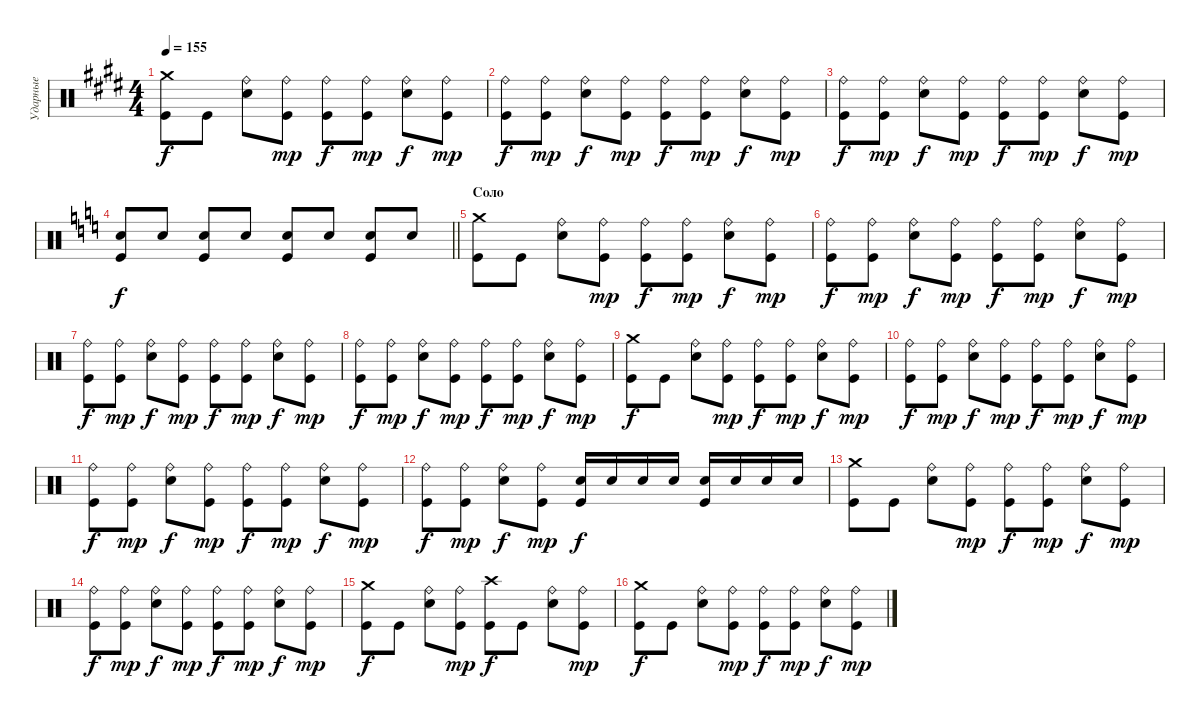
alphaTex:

\track ("Ударные" "Ударные") {instrument percussion}
\staff {score}
\articulation defaults
\ts (4 4)
\tempo 155
\clef neutral
\ks e
("Crash medium (hit)" "Kick (hit)").8{dy f} "Kick (hit)".8 ("Ride (bell)" "Electric Snare (hit)").8 ("Ride (bell)" "Kick (hit)").8{dy mp} ("Ride (bell)" "Kick (hit)").8{dy f} ("Ride (bell)" "Kick (hit)").8{dy mp} ("Ride (bell)" "Electric Snare (hit)").8{dy f} ("Ride (bell)" "Kick (hit)").8{dy mp} |
("Ride (bell)" "Kick (hit)").8{dy f} ("Ride (bell)" "Kick (hit)").8{dy mp} ("Ride (bell)" "Electric Snare (hit)").8{dy f} ("Ride (bell)" "Kick (hit)").8{dy mp} ("Ride (bell)" "Kick (hit)").8{dy f} ("Ride (bell)" "Kick (hit)").8{dy mp} ("Ride (bell)" "Electric Snare (hit)").8{dy f} ("Ride (bell)" "Kick (hit)").8{dy mp} |
("Ride (bell)" "Kick (hit)").8{dy f} ("Ride (bell)" "Kick (hit)").8{dy mp} ("Ride (bell)" "Electric Snare (hit)").8{dy f} ("Ride (bell)" "Kick (hit)").8{dy mp} ("Ride (bell)" "Kick (hit)").8{dy f} ("Ride (bell)" "Kick (hit)").8{dy mp} ("Ride (bell)" "Electric Snare (hit)").8{dy f} ("Ride (bell)" "Kick (hit)").8{dy mp} |
\barLineRight lightlight
\ks c
("Electric Snare (hit)" "Kick (hit)").8{dy f} "Electric Snare (hit)".8 ("Electric Snare (hit)" "Kick (hit)").8 "Electric Snare (hit)".8 ("Electric Snare (hit)" "Kick (hit)").8 "Electric Snare (hit)".8 ("Electric Snare (hit)" "Kick (hit)").8 "Electric Snare (hit)".8 |
\section ("" "Соло")
("Crash medium (hit)" "Kick (hit)").8 "Kick (hit)".8 ("Ride (bell)" "Electric Snare (hit)").8 ("Ride (bell)" "Kick (hit)").8{dy mp} ("Ride (bell)" "Kick (hit)").8{dy f} ("Ride (bell)" "Kick (hit)").8{dy mp} ("Ride (bell)" "Electric Snare (hit)").8{dy f} ("Ride (bell)" "Kick (hit)").8{dy mp} |
("Ride (bell)" "Kick (hit)").8{dy f} ("Ride (bell)" "Kick (hit)").8{dy mp} ("Ride (bell)" "Electric Snare (hit)").8{dy f} ("Ride (bell)" "Kick (hit)").8{dy mp} ("Ride (bell)" "Kick (hit)").8{dy f} ("Ride (bell)" "Kick (hit)").8{dy mp} ("Ride (bell)" "Electric Snare (hit)").8{dy f} ("Ride (bell)" "Kick (hit)").8{dy mp} |
("Ride (bell)" "Kick (hit)").8{dy f} ("Ride (bell)" "Kick (hit)").8{dy mp} ("Ride (bell)" "Electric Snare (hit)").8{dy f} ("Ride (bell)" "Kick (hit)").8{dy mp} ("Ride (bell)" "Kick (hit)").8{dy f} ("Ride (bell)" "Kick (hit)").8{dy mp} ("Ride (bell)" "Electric Snare (hit)").8{dy f} ("Ride (bell)" "Kick (hit)").8{dy mp} |
("Ride (bell)" "Kick (hit)").8{dy f} ("Ride (bell)" "Kick (hit)").8{dy mp} ("Ride (bell)" "Electric Snare (hit)").8{dy f} ("Ride (bell)" "Kick (hit)").8{dy mp} ("Ride (bell)" "Kick (hit)").8{dy f} ("Ride (bell)" "Kick (hit)").8{dy mp} ("Ride (bell)" "Electric Snare (hit)").8{dy f} ("Ride (bell)" "Kick (hit)").8{dy mp} |
("Crash medium (hit)" "Kick (hit)").8{dy f} "Kick (hit)".8 ("Ride (bell)" "Electric Snare (hit)").8 ("Ride (bell)" "Kick (hit)").8{dy mp} ("Ride (bell)" "Kick (hit)").8{dy f} ("Ride (bell)" "Kick (hit)").8{dy mp} ("Ride (bell)" "Electric Snare (hit)").8{dy f} ("Ride (bell)" "Kick (hit)").8{dy mp} |
("Ride (bell)" "Kick (hit)").8{dy f} ("Ride (bell)" "Kick (hit)").8{dy mp} ("Ride (bell)" "Electric Snare (hit)").8{dy f} ("Ride (bell)" "Kick (hit)").8{dy mp} ("Ride (bell)" "Kick (hit)").8{dy f} ("Ride (bell)" "Kick (hit)").8{dy mp} ("Ride (bell)" "Electric Snare (hit)").8{dy f} ("Ride (bell)" "Kick (hit)").8{dy mp} |
("Ride (bell)" "Kick (hit)").8{dy f} ("Ride (bell)" "Kick (hit)").8{dy mp} ("Ride (bell)" "Electric Snare (hit)").8{dy f} ("Ride (bell)" "Kick (hit)").8{dy mp} ("Ride (bell)" "Kick (hit)").8{dy f} ("Ride (bell)" "Kick (hit)").8{dy mp} ("Ride (bell)" "Electric Snare (hit)").8{dy f} ("Ride (bell)" "Kick (hit)").8{dy mp} |
("Ride (bell)" "Kick (hit)").8{dy f} ("Ride (bell)" "Kick (hit)").8{dy mp} ("Ride (bell)" "Electric Snare (hit)").8{dy f} ("Ride (bell)" "Kick (hit)").8{dy mp} ("Electric Snare (hit)" "Kick (hit)").16{dy f} "Electric Snare (hit)".16 "Electric Snare (hit)".16 "Electric Snare (hit)".16 ("Electric Snare (hit)" "Kick (hit)").16 "Electric Snare (hit)".16 "Electric Snare (hit)".16 "Electric Snare (hit)".16 |
("Crash medium (hit)" "Kick (hit)").8 "Kick (hit)".8 ("Ride (bell)" "Electric Snare (hit)").8 ("Ride (bell)" "Kick (hit)").8{dy mp} ("Ride (bell)" "Kick (hit)").8{dy f} ("Ride (bell)" "Kick (hit)").8{dy mp} ("Ride (bell)" "Electric Snare (hit)").8{dy f} ("Ride (bell)" "Kick (hit)").8{dy mp} |
("Ride (bell)" "Kick (hit)").8{dy f} ("Ride (bell)" "Kick (hit)").8{dy mp} ("Ride (bell)" "Electric Snare (hit)").8{dy f} ("Ride (bell)" "Kick (hit)").8{dy mp} ("Ride (bell)" "Kick (hit)").8{dy f} ("Ride (bell)" "Kick (hit)").8{dy mp} ("Ride (bell)" "Electric Snare (hit)").8{dy f} ("Ride (bell)" "Kick (hit)").8{dy mp} |
("Crash medium (hit)" "Kick (hit)").8{dy f} "Kick (hit)".8 ("Ride (bell)" "Electric Snare (hit)").8 ("Ride (bell)" "Kick (hit)").8{dy mp} ("Crash high (hit)" "Kick (hit)").8{dy f} "Kick (hit)".8 ("Ride (bell)" "Electric Snare (hit)").8 ("Ride (bell)" "Kick (hit)").8{dy mp} |
("Crash medium (hit)" "Kick (hit)").8{dy f} "Kick (hit)".8 ("Ride (bell)" "Electric Snare (hit)").8 ("Ride (bell)" "Kick (hit)").8{dy mp} ("Ride (bell)" "Kick (hit)").8{dy f} ("Ride (bell)" "Kick (hit)").8{dy mp} ("Ride (bell)" "Electric Snare (hit)").8{dy f} ("Ride (bell)" "Kick (hit)").8{dy mp}
